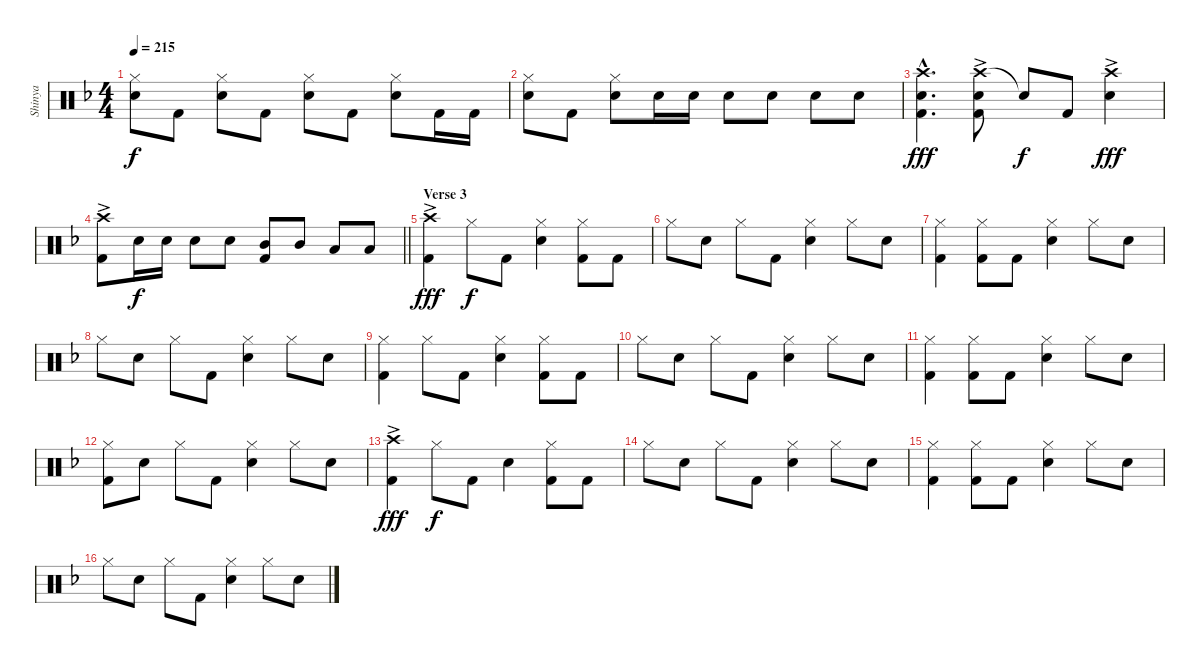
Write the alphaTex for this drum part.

\track ("Shinya" "Shinya") {instrument percussion}
\staff {score}
\articulation defaults
\ts (4 4)
\tempo 215
\clef neutral
\ks f
("Hi-Hat (closed)" "Snare (hit) 2").8{dy f} "Kick (hit) 2".8 ("Hi-Hat (closed)" "Snare (hit) 2").8 "Kick (hit) 2".8 ("Hi-Hat (closed)" "Snare (hit) 2").8 "Kick (hit) 2".8 ("Hi-Hat (closed)" "Snare (hit) 2").8 "Kick (hit) 2".16 "Kick (hit) 2".16 |
("Hi-Hat (closed)" "Snare (hit) 2").8 "Kick (hit) 2".8 ("Hi-Hat (closed)" "Snare (hit) 2").8 "Snare (hit) 2".16 "Snare (hit) 2".16 "Snare (hit) 2".8 "Snare (hit) 2".8 "Snare (hit) 2".8 "Snare (hit) 2".8 |
("Crash high (hit)"{hac} "Snare (hit) 2"{hac} "Kick (hit) 2"{hac}).4{d dy fff} ("Crash high (hit)"{ac} "Snare (hit) 2" "Kick (hit) 2").8 "Snare (hit)"{t}.8{dy f} "Kick (hit) 2".8 ("Crash high (hit)"{ac} "Snare (hit) 2").4{dy fff} |
\barLineRight lightlight
("Crash high (hit)"{ac} "Kick (hit) 2").8 "Snare (hit) 2".16{dy f} "Snare (hit) 2".16 "Snare (hit) 2".8 "Snare (hit) 2".8 ("Mid Tom (hit)" "Kick (hit) 2").8 "Mid Tom (hit)".8 "Low Tom (hit)".8 "Low Tom (hit)".8 |
\section ("" "Verse 3")
("Crash high (hit)"{ac} "Kick (hit) 2").4{dy fff} "Hi-Hat (closed)".8{dy f} "Kick (hit) 2".8 ("Hi-Hat (closed)" "Snare (hit) 2").4 ("Hi-Hat (closed)" "Kick (hit) 2").8 "Kick (hit) 2".8 |
"Hi-Hat (closed)".8 "Snare (hit) 2".8 "Hi-Hat (closed)".8 "Kick (hit) 2".8 ("Hi-Hat (closed)" "Snare (hit) 2").4 "Hi-Hat (closed)".8 "Snare (hit) 2".8 |
("Hi-Hat (closed)" "Kick (hit) 2").4 ("Hi-Hat (closed)" "Kick (hit) 2").8 "Kick (hit) 2".8 ("Hi-Hat (closed)" "Snare (hit) 2").4 "Hi-Hat (closed)".8 "Snare (hit) 2".8 |
"Hi-Hat (closed)".8 "Snare (hit) 2".8 "Hi-Hat (closed)".8 "Kick (hit) 2".8 ("Hi-Hat (closed)" "Snare (hit) 2").4 "Hi-Hat (closed)".8 "Snare (hit) 2".8 |
("Hi-Hat (closed)" "Kick (hit) 2").4 "Hi-Hat (closed)".8 "Kick (hit) 2".8 ("Hi-Hat (closed)" "Snare (hit) 2").4 ("Hi-Hat (closed)" "Kick (hit) 2").8 "Kick (hit) 2".8 |
"Hi-Hat (closed)".8 "Snare (hit) 2".8 "Hi-Hat (closed)".8 "Kick (hit) 2".8 ("Hi-Hat (closed)" "Snare (hit) 2").4 "Hi-Hat (closed)".8 "Snare (hit) 2".8 |
("Hi-Hat (closed)" "Kick (hit) 2").4 ("Hi-Hat (closed)" "Kick (hit) 2").8 "Kick (hit) 2".8 ("Hi-Hat (closed)" "Snare (hit) 2").4 "Hi-Hat (closed)".8 "Snare (hit) 2".8 |
("Hi-Hat (closed)" "Kick (hit) 2").8 "Snare (hit) 2".8 "Hi-Hat (closed)".8 "Kick (hit) 2".8 ("Hi-Hat (closed)" "Snare (hit) 2").4 "Hi-Hat (closed)".8 "Snare (hit) 2".8 |
("Crash high (hit)"{ac} "Kick (hit) 2").4{dy fff} "Hi-Hat (closed)".8{dy f} "Kick (hit) 2".8 "Snare (hit) 2".4 ("Hi-Hat (closed)" "Kick (hit) 2").8 "Kick (hit) 2".8 |
"Hi-Hat (closed)".8 "Snare (hit) 2".8 "Hi-Hat (closed)".8 "Kick (hit) 2".8 ("Hi-Hat (closed)" "Snare (hit) 2").4 "Hi-Hat (closed)".8 "Snare (hit) 2".8 |
("Hi-Hat (closed)" "Kick (hit) 2").4 ("Hi-Hat (closed)" "Kick (hit) 2").8 "Kick (hit) 2".8 ("Hi-Hat (closed)" "Snare (hit) 2").4 "Hi-Hat (closed)".8 "Snare (hit) 2".8 |
"Hi-Hat (closed)".8 "Snare (hit) 2".8 "Hi-Hat (closed)".8 "Kick (hit) 2".8 ("Hi-Hat (closed)" "Snare (hit) 2").4 "Hi-Hat (closed)".8 "Snare (hit) 2".8
